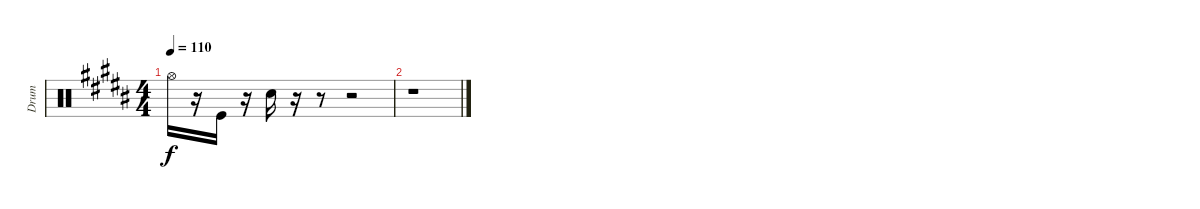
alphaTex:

\track ("Drum" "Drum") {instrument percussion}
\staff {score}
\articulation defaults
\ts (4 4)
\tempo 110
\clef neutral
\ks g#minor "Hi-Hat (open)".16{dy f}
r.16 "Kick (hit)".16 r.16 "Snare (hit) 2".16 r.16 r.8 r.2 |
r.1
